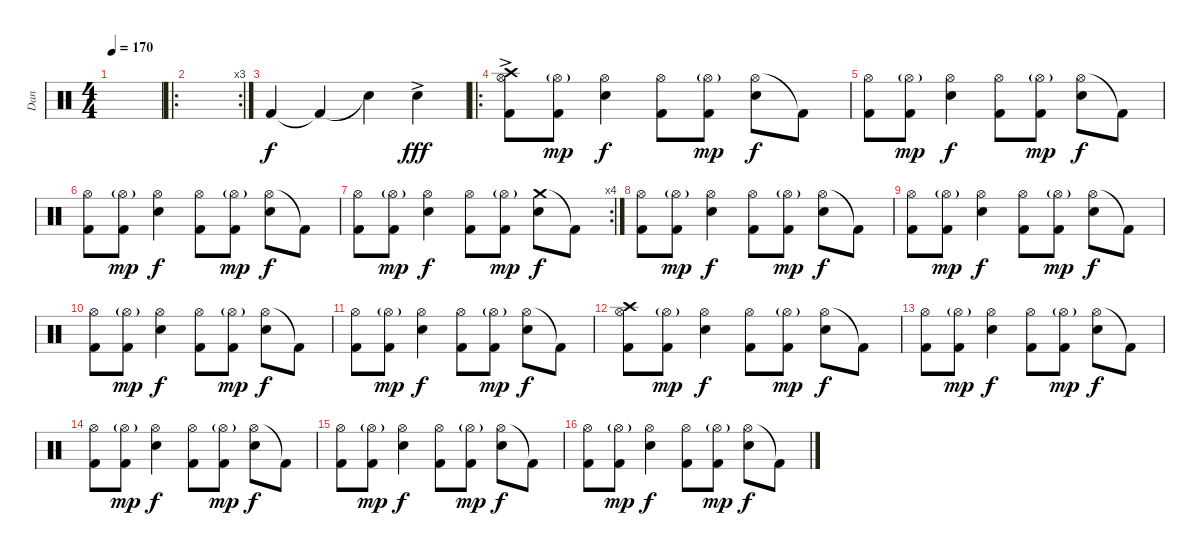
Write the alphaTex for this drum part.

\track ("Dan" "Dan") {instrument percussion}
\staff {score}
\articulation defaults
\ts (4 4)
\tempo 170
\clef neutral
\ks c
|
\ro
\rc 3
|
"Kick (hit) 2".4 "Kick (hit) 2"{t}.4 "Snare (hit) 2"{t}.4 "Snare (hit) 2"{ac}.4{dy fff} |
\ro
("Crash high (hit)"{ac} "Hi-Hat (open)" "Kick (hit) 2").8 ("Hi-Hat (open)"{g} "Kick (hit) 2").8{dy mp} ("Hi-Hat (open)" "Snare (hit) 2").4{dy f} ("Hi-Hat (open)" "Kick (hit) 2").8 ("Hi-Hat (open)"{g} "Kick (hit) 2").8{dy mp} ("Hi-Hat (open)" "Snare (hit) 2").8{dy f} "Kick (hit) 2"{t}.8 |
("Hi-Hat (open)" "Kick (hit) 2").8 ("Hi-Hat (open)"{g} "Kick (hit) 2").8{dy mp} ("Hi-Hat (open)" "Snare (hit) 2").4{dy f} ("Hi-Hat (open)" "Kick (hit) 2").8 ("Hi-Hat (open)"{g} "Kick (hit) 2").8{dy mp} ("Hi-Hat (open)" "Snare (hit) 2").8{dy f} "Kick (hit) 2"{t}.8 |
("Hi-Hat (open)" "Kick (hit) 2").8 ("Hi-Hat (open)"{g} "Kick (hit) 2").8{dy mp} ("Hi-Hat (open)" "Snare (hit) 2").4{dy f} ("Hi-Hat (open)" "Kick (hit) 2").8 ("Hi-Hat (open)"{g} "Kick (hit) 2").8{dy mp} ("Hi-Hat (open)" "Snare (hit) 2").8{dy f} "Kick (hit) 2"{t}.8 |
\rc 4
("Hi-Hat (open)" "Kick (hit) 2").8 ("Hi-Hat (open)"{g} "Kick (hit) 2").8{dy mp} ("Hi-Hat (open)" "Snare (hit) 2").4{dy f} ("Hi-Hat (open)" "Kick (hit) 2").8 ("Hi-Hat (open)"{g} "Kick (hit) 2").8{dy mp} ("Crash medium (hit)" "Snare (hit) 2").8{dy f} "Kick (hit) 2"{t}.8 |
("Hi-Hat (open)" "Kick (hit) 2").8 ("Hi-Hat (open)"{g} "Kick (hit) 2").8{dy mp} ("Hi-Hat (open)" "Snare (hit) 2").4{dy f} ("Hi-Hat (open)" "Kick (hit) 2").8 ("Hi-Hat (open)"{g} "Kick (hit) 2").8{dy mp} ("Hi-Hat (open)" "Snare (hit) 2").8{dy f} "Kick (hit) 2"{t}.8 |
("Hi-Hat (open)" "Kick (hit) 2").8 ("Hi-Hat (open)"{g} "Kick (hit) 2").8{dy mp} ("Hi-Hat (open)" "Snare (hit) 2").4{dy f} ("Hi-Hat (open)" "Kick (hit) 2").8 ("Hi-Hat (open)"{g} "Kick (hit) 2").8{dy mp} ("Hi-Hat (open)" "Snare (hit) 2").8{dy f} "Kick (hit) 2"{t}.8 |
("Hi-Hat (open)" "Kick (hit) 2").8 ("Hi-Hat (open)"{g} "Kick (hit) 2").8{dy mp} ("Hi-Hat (open)" "Snare (hit) 2").4{dy f} ("Hi-Hat (open)" "Kick (hit) 2").8 ("Hi-Hat (open)"{g} "Kick (hit) 2").8{dy mp} ("Hi-Hat (open)" "Snare (hit) 2").8{dy f} "Kick (hit) 2"{t}.8 |
("Hi-Hat (open)" "Kick (hit) 2").8 ("Hi-Hat (open)"{g} "Kick (hit) 2").8{dy mp} ("Hi-Hat (open)" "Snare (hit) 2").4{dy f} ("Hi-Hat (open)" "Kick (hit) 2").8 ("Hi-Hat (open)"{g} "Kick (hit) 2").8{dy mp} ("Hi-Hat (open)" "Snare (hit) 2").8{dy f} "Kick (hit) 2"{t}.8 |
("Crash high (hit)" "Hi-Hat (open)" "Kick (hit) 2").8 ("Hi-Hat (open)"{g} "Kick (hit) 2").8{dy mp} ("Hi-Hat (open)" "Snare (hit) 2").4{dy f} ("Hi-Hat (open)" "Kick (hit) 2").8 ("Hi-Hat (open)"{g} "Kick (hit) 2").8{dy mp} ("Hi-Hat (open)" "Snare (hit) 2").8{dy f} "Kick (hit) 2"{t}.8 |
("Hi-Hat (open)" "Kick (hit) 2").8 ("Hi-Hat (open)"{g} "Kick (hit) 2").8{dy mp} ("Hi-Hat (open)" "Snare (hit) 2").4{dy f} ("Hi-Hat (open)" "Kick (hit) 2").8 ("Hi-Hat (open)"{g} "Kick (hit) 2").8{dy mp} ("Hi-Hat (open)" "Snare (hit) 2").8{dy f} "Kick (hit) 2"{t}.8 |
("Hi-Hat (open)" "Kick (hit) 2").8 ("Hi-Hat (open)"{g} "Kick (hit) 2").8{dy mp} ("Hi-Hat (open)" "Snare (hit) 2").4{dy f} ("Hi-Hat (open)" "Kick (hit) 2").8 ("Hi-Hat (open)"{g} "Kick (hit) 2").8{dy mp} ("Hi-Hat (open)" "Snare (hit) 2").8{dy f} "Kick (hit) 2"{t}.8 |
("Hi-Hat (open)" "Kick (hit) 2").8 ("Hi-Hat (open)"{g} "Kick (hit) 2").8{dy mp} ("Hi-Hat (open)" "Snare (hit) 2").4{dy f} ("Hi-Hat (open)" "Kick (hit) 2").8 ("Hi-Hat (open)"{g} "Kick (hit) 2").8{dy mp} ("Hi-Hat (open)" "Snare (hit) 2").8{dy f} "Kick (hit) 2"{t}.8 |
("Hi-Hat (open)" "Kick (hit) 2").8 ("Hi-Hat (open)"{g} "Kick (hit) 2").8{dy mp} ("Hi-Hat (open)" "Snare (hit) 2").4{dy f} ("Hi-Hat (open)" "Kick (hit) 2").8 ("Hi-Hat (open)"{g} "Kick (hit) 2").8{dy mp} ("Hi-Hat (open)" "Snare (hit) 2").8{dy f} "Kick (hit) 2"{t}.8
